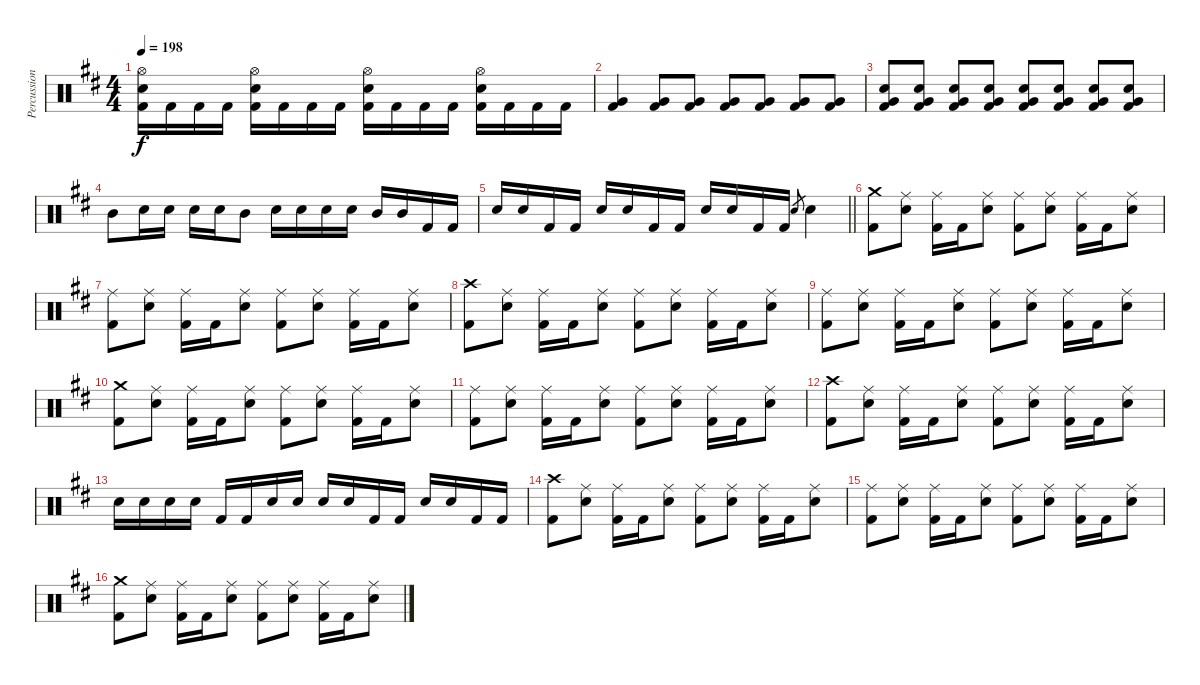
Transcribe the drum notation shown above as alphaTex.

\track ("Percussion" "Percussion") {instrument percussion}
\staff {score}
\articulation defaults
\ts (4 4)
\tempo 198
\clef neutral
\ks bminor
("Hi-Hat (open)" "Snare (hit) 2" "Kick (hit) 2").16{dy f} "Kick (hit) 2".16 "Kick (hit) 2".16 "Kick (hit) 2".16 ("Hi-Hat (open)" "Snare (hit) 2" "Kick (hit) 2").16 "Kick (hit) 2".16 "Kick (hit) 2".16 "Kick (hit) 2".16 ("Hi-Hat (open)" "Snare (hit) 2" "Kick (hit) 2").16 "Kick (hit) 2".16 "Kick (hit) 2".16 "Kick (hit) 2".16 ("Hi-Hat (open)" "Snare (hit) 2" "Kick (hit) 2").16 "Kick (hit) 2".16 "Kick (hit) 2".16 "Kick (hit) 2".16 |
("Very Low Tom (hit)" "Kick (hit) 2").4 ("Very Low Tom (hit)" "Kick (hit) 2").8 ("Very Low Tom (hit)" "Kick (hit) 2").8 ("Very Low Tom (hit)" "Kick (hit) 2").8 ("Very Low Tom (hit)" "Kick (hit) 2").8 ("Very Low Tom (hit)" "Kick (hit) 2").8 ("Very Low Tom (hit)" "Kick (hit) 2").8 |
("Snare (hit) 2" "Very Low Tom (hit)" "Kick (hit) 2").8 ("Snare (hit) 2" "Very Low Tom (hit)" "Kick (hit) 2").8 ("Snare (hit) 2" "Very Low Tom (hit)" "Kick (hit) 2").8 ("Snare (hit) 2" "Very Low Tom (hit)" "Kick (hit) 2").8 ("Snare (hit) 2" "Very Low Tom (hit)" "Kick (hit) 2").8 ("Snare (hit) 2" "Very Low Tom (hit)" "Kick (hit) 2").8 ("Snare (hit) 2" "Very Low Tom (hit)" "Kick (hit) 2").8 ("Snare (hit) 2" "Very Low Tom (hit)" "Kick (hit) 2").8 |
"Mid Tom (hit)".8 "Snare (hit) 2".16 "Snare (hit) 2".16 "Snare (hit) 2".16 "Snare (hit) 2".16 "Mid Tom (hit)".8 "Snare (hit) 2".16 "Snare (hit) 2".16 "Snare (hit) 2".16 "Snare (hit) 2".16 "Mid Tom (hit)".16 "Mid Tom (hit)".16 "Kick (hit) 2".16 "Kick (hit) 2".16 |
\barLineRight lightlight "Snare (hit) 2".16 "Snare (hit) 2".16 "Kick (hit) 2".16 "Kick (hit) 2".16 "Snare (hit) 2".16 "Snare (hit) 2".16 "Kick (hit) 2".16 "Kick (hit) 2".16 "Snare (hit) 2".16 "Snare (hit) 2".16 "Kick (hit) 2".16 "Kick (hit) 2".16 "Snare (hit) 2".8{gr} "Snare (hit) 2".4
|
("Crash medium (hit)" "Kick (hit) 2").8 ("Ride (middle)" "Snare (hit) 2").8 ("Ride (middle)" "Kick (hit) 2").16 "Kick (hit) 2".16 ("Ride (middle)" "Snare (hit) 2").8 ("Ride (middle)" "Kick (hit) 2").8 ("Ride (middle)" "Snare (hit) 2").8 ("Ride (middle)" "Kick (hit) 2").16 "Kick (hit) 2".16 ("Ride (middle)" "Snare (hit) 2").8 |
("Ride (middle)" "Kick (hit) 2").8 ("Ride (middle)" "Snare (hit) 2").8 ("Ride (middle)" "Kick (hit) 2").16 "Kick (hit) 2".16 ("Ride (middle)" "Snare (hit) 2").8 ("Ride (middle)" "Kick (hit) 2").8 ("Ride (middle)" "Snare (hit) 2").8 ("Ride (middle)" "Kick (hit) 2").16 "Kick (hit) 2".16 ("Ride (middle)" "Snare (hit) 2").8 |
("Crash high (hit)" "Kick (hit) 2").8 ("Ride (middle)" "Snare (hit) 2").8 ("Ride (middle)" "Kick (hit) 2").16 "Kick (hit) 2".16 ("Ride (middle)" "Snare (hit) 2").8 ("Ride (middle)" "Kick (hit) 2").8 ("Ride (middle)" "Snare (hit) 2").8 ("Ride (middle)" "Kick (hit) 2").16 "Kick (hit) 2".16 ("Ride (middle)" "Snare (hit) 2").8 |
("Ride (middle)" "Kick (hit) 2").8 ("Ride (middle)" "Snare (hit) 2").8 ("Ride (middle)" "Kick (hit) 2").16 "Kick (hit) 2".16 ("Ride (middle)" "Snare (hit) 2").8 ("Ride (middle)" "Kick (hit) 2").8 ("Ride (middle)" "Snare (hit) 2").8 ("Ride (middle)" "Kick (hit) 2").16 "Kick (hit) 2".16 ("Ride (middle)" "Snare (hit) 2").8 |
("Crash medium (hit)" "Kick (hit) 2").8 ("Ride (middle)" "Snare (hit) 2").8 ("Ride (middle)" "Kick (hit) 2").16 "Kick (hit) 2".16 ("Ride (middle)" "Snare (hit) 2").8 ("Ride (middle)" "Kick (hit) 2").8 ("Ride (middle)" "Snare (hit) 2").8 ("Ride (middle)" "Kick (hit) 2").16 "Kick (hit) 2".16 ("Ride (middle)" "Snare (hit) 2").8 |
("Ride (middle)" "Kick (hit) 2").8 ("Ride (middle)" "Snare (hit) 2").8 ("Ride (middle)" "Kick (hit) 2").16 "Kick (hit) 2".16 ("Ride (middle)" "Snare (hit) 2").8 ("Ride (middle)" "Kick (hit) 2").8 ("Ride (middle)" "Snare (hit) 2").8 ("Ride (middle)" "Kick (hit) 2").16 "Kick (hit) 2".16 ("Ride (middle)" "Snare (hit) 2").8 |
("Crash high (hit)" "Kick (hit) 2").8 ("Ride (middle)" "Snare (hit) 2").8 ("Ride (middle)" "Kick (hit) 2").16 "Kick (hit) 2".16 ("Ride (middle)" "Snare (hit) 2").8 ("Ride (middle)" "Kick (hit) 2").8 ("Ride (middle)" "Snare (hit) 2").8 ("Ride (middle)" "Kick (hit) 2").16 "Kick (hit) 2".16 ("Ride (middle)" "Snare (hit) 2").8 |
"Snare (hit) 2".16 "Snare (hit) 2".16 "Snare (hit) 2".16 "Snare (hit) 2".16 "Kick (hit) 2".16 "Kick (hit) 2".16 "Snare (hit) 2".16 "Snare (hit) 2".16 "Snare (hit) 2".16 "Snare (hit) 2".16 "Kick (hit) 2".16 "Kick (hit) 2".16 "Snare (hit) 2".16 "Snare (hit) 2".16 "Kick (hit) 2".16 "Kick (hit) 2".16 |
("Crash high (hit)" "Kick (hit) 2").8 ("Ride (middle)" "Snare (hit) 2").8 ("Ride (middle)" "Kick (hit) 2").16 "Kick (hit) 2".16 ("Ride (middle)" "Snare (hit) 2").8 ("Ride (middle)" "Kick (hit) 2").8 ("Ride (middle)" "Snare (hit) 2").8 ("Ride (middle)" "Kick (hit) 2").16 "Kick (hit) 2".16 ("Ride (middle)" "Snare (hit) 2").8 |
("Ride (middle)" "Kick (hit) 2").8 ("Ride (middle)" "Snare (hit) 2").8 ("Ride (middle)" "Kick (hit) 2").16 "Kick (hit) 2".16 ("Ride (middle)" "Snare (hit) 2").8 ("Ride (middle)" "Kick (hit) 2").8 ("Ride (middle)" "Snare (hit) 2").8 ("Ride (middle)" "Kick (hit) 2").16 "Kick (hit) 2".16 ("Ride (middle)" "Snare (hit) 2").8 |
("Crash medium (hit)" "Kick (hit) 2").8 ("Ride (middle)" "Snare (hit) 2").8 ("Ride (middle)" "Kick (hit) 2").16 "Kick (hit) 2".16 ("Ride (middle)" "Snare (hit) 2").8 ("Ride (middle)" "Kick (hit) 2").8 ("Ride (middle)" "Snare (hit) 2").8 ("Ride (middle)" "Kick (hit) 2").16 "Kick (hit) 2".16 ("Ride (middle)" "Snare (hit) 2").8
